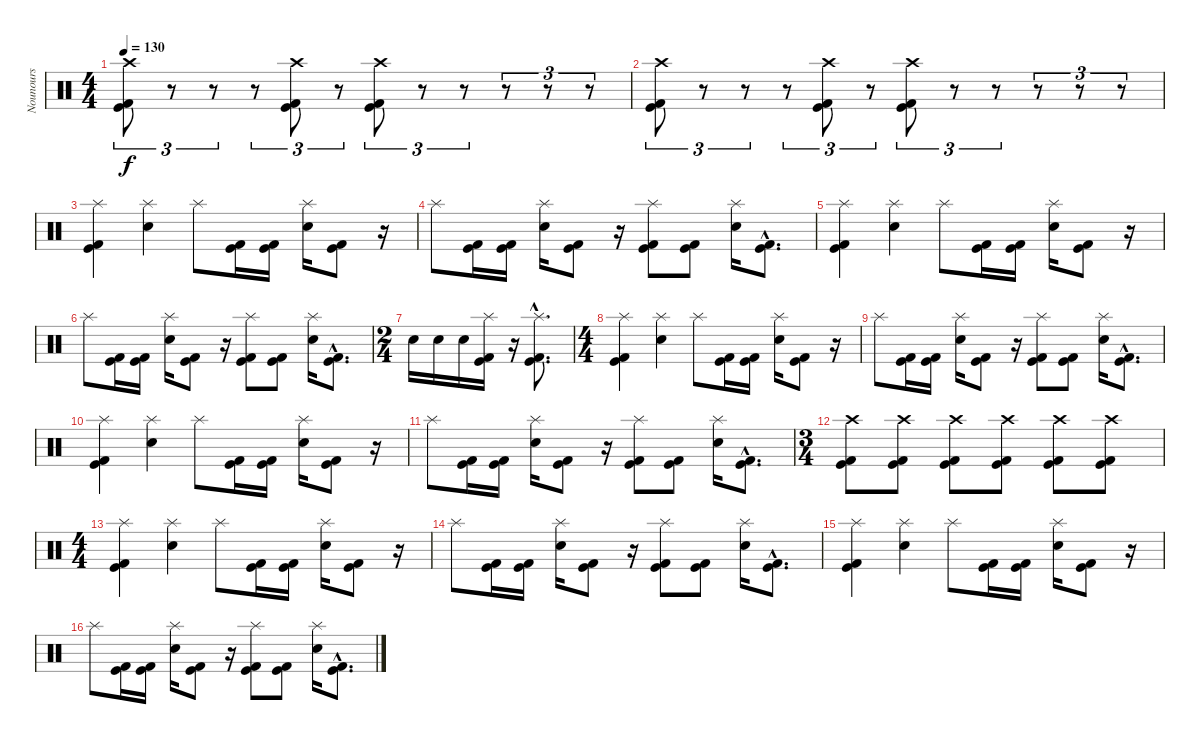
\track ("Nounours" "Nounours") {instrument percussion}
\staff {score}
\articulation defaults
\ts (4 4)
\tempo 130
\clef neutral
\ks c
("Crash high (hit)" "Kick (hit) 2" "Kick (hit)").8{tu (3 2) dy f} r.8{tu (3 2)} r.8{tu (3 2)} r.8{tu (3 2)} ("Crash high (hit)" "Kick (hit) 2" "Kick (hit)").8{tu (3 2)} r.8{tu (3 2)} ("Crash high (hit)" "Kick (hit)" "Kick (hit) 2").8{tu (3 2)} r.8{tu (3 2)} r.8{tu (3 2)} r.8{tu (3 2)} r.8{tu (3 2)} r.8{tu (3 2)} |
("Crash high (hit)" "Kick (hit) 2" "Kick (hit)").8{tu (3 2)} r.8{tu (3 2)} r.8{tu (3 2)} r.8{tu (3 2)} ("Crash high (hit)" "Kick (hit) 2" "Kick (hit)").8{tu (3 2)} r.8{tu (3 2)} ("Crash high (hit)" "Kick (hit)" "Kick (hit) 2").8{tu (3 2)} r.8{tu (3 2)} r.8{tu (3 2)} r.8{tu (3 2)} r.8{tu (3 2)} r.8{tu (3 2)} |
("Splash (hit)" "Kick (hit) 2" "Kick (hit)").4 ("Splash (hit)" "Snare (hit) 2").4 "Splash (hit)".8 ("Kick (hit) 2" "Kick (hit)").16 ("Kick (hit)" "Kick (hit) 2").16 ("Splash (hit)" "Snare (hit) 2").16 ("Kick (hit)" "Kick (hit) 2").8 r.16 |
"Splash (hit)".8 ("Kick (hit)" "Kick (hit) 2").16 ("Kick (hit) 2" "Kick (hit)").16 ("Splash (hit)" "Snare (hit) 2").16 ("Kick (hit) 2" "Kick (hit)").8 r.16 ("Splash (hit)" "Kick (hit) 2" "Kick (hit)").8 ("Kick (hit) 2" "Kick (hit)").8 ("Splash (hit)" "Snare (hit) 2").16 ("Kick (hit) 2"{hac} "Kick (hit)"{hac}).8{d} |
("Splash (hit)" "Kick (hit) 2" "Kick (hit)").4 ("Splash (hit)" "Snare (hit) 2").4 "Splash (hit)".8 ("Kick (hit) 2" "Kick (hit)").16 ("Kick (hit)" "Kick (hit) 2").16 ("Splash (hit)" "Snare (hit) 2").16 ("Kick (hit)" "Kick (hit) 2").8 r.16 |
"Splash (hit)".8 ("Kick (hit)" "Kick (hit) 2").16 ("Kick (hit) 2" "Kick (hit)").16 ("Splash (hit)" "Snare (hit) 2").16 ("Kick (hit) 2" "Kick (hit)").8 r.16 ("Splash (hit)" "Kick (hit) 2" "Kick (hit)").8 ("Kick (hit) 2" "Kick (hit)").8 ("Splash (hit)" "Snare (hit) 2").16 ("Kick (hit) 2"{hac} "Kick (hit)"{hac}).8{d} |
\ts (2 4)
"Snare (hit) 2".16 "Snare (hit) 2".16 "Snare (hit) 2".16 ("Splash (hit)" "Kick (hit)" "Kick (hit) 2").16 r.16 ("Splash (hit)"{hac} "Kick (hit)"{hac} "Kick (hit) 2"{hac}).8{d} |
\ts (4 4)
("Splash (hit)" "Kick (hit) 2" "Kick (hit)").4 ("Splash (hit)" "Snare (hit) 2").4 "Splash (hit)".8 ("Kick (hit) 2" "Kick (hit)").16 ("Kick (hit)" "Kick (hit) 2").16 ("Splash (hit)" "Snare (hit) 2").16 ("Kick (hit)" "Kick (hit) 2").8 r.16 |
"Splash (hit)".8 ("Kick (hit)" "Kick (hit) 2").16 ("Kick (hit) 2" "Kick (hit)").16 ("Splash (hit)" "Snare (hit) 2").16 ("Kick (hit) 2" "Kick (hit)").8 r.16 ("Splash (hit)" "Kick (hit) 2" "Kick (hit)").8 ("Kick (hit) 2" "Kick (hit)").8 ("Splash (hit)" "Snare (hit) 2").16 ("Kick (hit) 2"{hac} "Kick (hit)"{hac}).8{d} |
("Splash (hit)" "Kick (hit) 2" "Kick (hit)").4 ("Splash (hit)" "Snare (hit) 2").4 "Splash (hit)".8 ("Kick (hit) 2" "Kick (hit)").16 ("Kick (hit)" "Kick (hit) 2").16 ("Splash (hit)" "Snare (hit) 2").16 ("Kick (hit)" "Kick (hit) 2").8 r.16 |
"Splash (hit)".8 ("Kick (hit)" "Kick (hit) 2").16 ("Kick (hit) 2" "Kick (hit)").16 ("Splash (hit)" "Snare (hit) 2").16 ("Kick (hit) 2" "Kick (hit)").8 r.16 ("Splash (hit)" "Kick (hit) 2" "Kick (hit)").8 ("Kick (hit) 2" "Kick (hit)").8 ("Splash (hit)" "Snare (hit) 2").16 ("Kick (hit) 2"{hac} "Kick (hit)"{hac}).8{d} |
\ts (3 4)
("Crash high (hit)" "Kick (hit) 2" "Kick (hit)").8 ("Crash high (hit)" "Kick (hit)" "Kick (hit) 2").8 ("Crash high (hit)" "Kick (hit)" "Kick (hit) 2").8 ("Crash high (hit)" "Kick (hit)" "Kick (hit) 2").8 ("Crash high (hit)" "Kick (hit) 2" "Kick (hit)").8 ("Crash high (hit)" "Kick (hit) 2" "Kick (hit)").8 |
\ts (4 4)
("Splash (hit)" "Kick (hit) 2" "Kick (hit)").4 ("Splash (hit)" "Snare (hit) 2").4 "Splash (hit)".8 ("Kick (hit) 2" "Kick (hit)").16 ("Kick (hit)" "Kick (hit) 2").16 ("Splash (hit)" "Snare (hit) 2").16 ("Kick (hit)" "Kick (hit) 2").8 r.16 |
"Splash (hit)".8 ("Kick (hit)" "Kick (hit) 2").16 ("Kick (hit) 2" "Kick (hit)").16 ("Splash (hit)" "Snare (hit) 2").16 ("Kick (hit) 2" "Kick (hit)").8 r.16 ("Splash (hit)" "Kick (hit) 2" "Kick (hit)").8 ("Kick (hit) 2" "Kick (hit)").8 ("Splash (hit)" "Snare (hit) 2").16 ("Kick (hit) 2"{hac} "Kick (hit)"{hac}).8{d} |
("Splash (hit)" "Kick (hit) 2" "Kick (hit)").4 ("Splash (hit)" "Snare (hit) 2").4 "Splash (hit)".8 ("Kick (hit) 2" "Kick (hit)").16 ("Kick (hit)" "Kick (hit) 2").16 ("Splash (hit)" "Snare (hit) 2").16 ("Kick (hit)" "Kick (hit) 2").8 r.16 |
"Splash (hit)".8 ("Kick (hit)" "Kick (hit) 2").16 ("Kick (hit) 2" "Kick (hit)").16 ("Splash (hit)" "Snare (hit) 2").16 ("Kick (hit) 2" "Kick (hit)").8 r.16 ("Splash (hit)" "Kick (hit) 2" "Kick (hit)").8 ("Kick (hit) 2" "Kick (hit)").8 ("Splash (hit)" "Snare (hit) 2").16 ("Kick (hit) 2"{hac} "Kick (hit)"{hac}).8{d}
